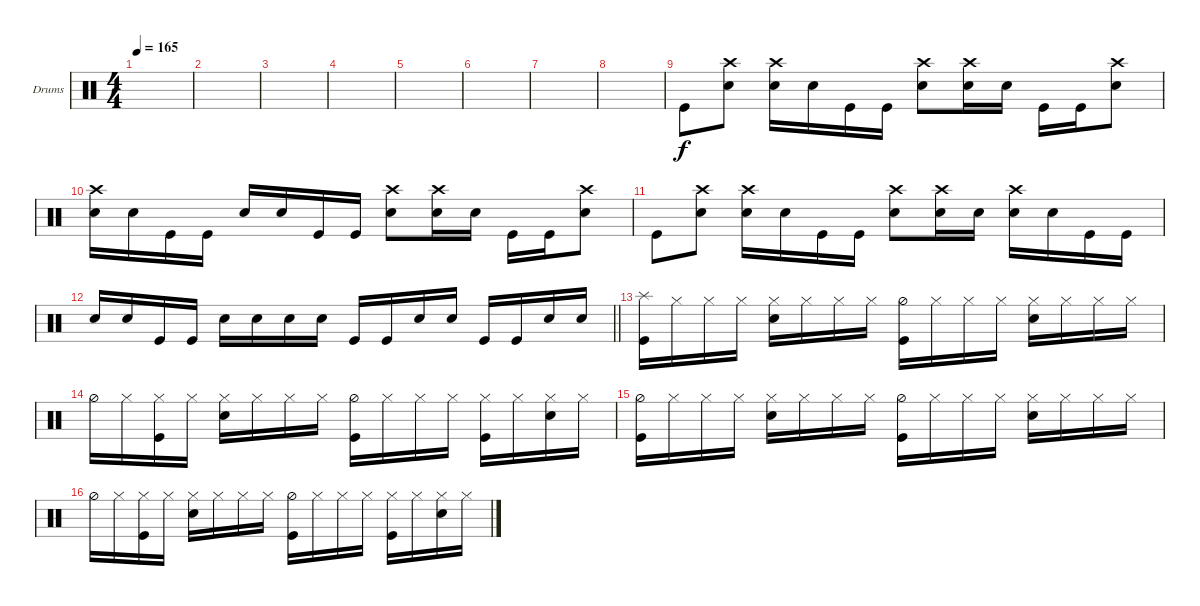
\defaultSystemsLayout 4
\bracketExtendMode groupsimilarinstruments
\firstSystemTrackNameOrientation horizontal
\otherSystemsTrackNameOrientation horizontal
\track ("Drumkit" "Drums") {instrument percussion}
\staff {score}
\articulation defaults
\ts (4 4)
\tempo 165
\clef neutral
\ks c
|
|
|
|
|
|
|
|
"Kick (hit)".8 ("Snare (hit) 2" "Crash high (hit)").8 ("Snare (hit) 2" "Crash high (hit)").16 "Snare (hit) 2".16 "Kick (hit)".16 "Kick (hit)".16 ("Snare (hit) 2" "Crash high (hit)").8 ("Snare (hit) 2" "Crash high (hit)").16 "Snare (hit) 2".16 "Kick (hit)".16 "Kick (hit)".16 ("Snare (hit) 2" "Crash high (hit)").8 |
("Snare (hit) 2" "Crash high (hit)").16 "Snare (hit) 2".16 "Kick (hit)".16 "Kick (hit)".16 "Snare (hit) 2".16 "Snare (hit) 2".16 "Kick (hit)".16 "Kick (hit)".16 ("Snare (hit) 2" "Crash high (hit)").8 ("Snare (hit) 2" "Crash high (hit)").16 "Snare (hit) 2".16 "Kick (hit)".16 "Kick (hit)".16 ("Snare (hit) 2" "Crash high (hit)").8 |
"Kick (hit)".8 ("Snare (hit) 2" "Crash high (hit)").8 ("Snare (hit) 2" "Crash high (hit)").16 "Snare (hit) 2".16 "Kick (hit)".16 "Kick (hit)".16 ("Snare (hit) 2" "Crash high (hit)").8 ("Snare (hit) 2" "Crash high (hit)").16 "Snare (hit) 2".16 ("Snare (hit) 2" "Crash high (hit)").16 "Snare (hit) 2".16 "Kick (hit)".16 "Kick (hit)".16 |
\barLineRight lightlight "Snare (hit) 2".16 "Snare (hit) 2".16 "Kick (hit)".16 "Kick (hit)".16 "Snare (hit) 2".16 "Snare (hit) 2".16 "Snare (hit) 2".16 "Snare (hit) 2".16 "Kick (hit)".16 "Kick (hit)".16 "Snare (hit) 2".16 "Snare (hit) 2".16 "Kick (hit)".16 "Kick (hit)".16 "Snare (hit) 2".16 "Snare (hit) 2".16
|
("Kick (hit)" "Splash (hit)").16 "Hi-Hat (closed)".16 "Hi-Hat (closed)".16 "Hi-Hat (closed)".16 ("Hi-Hat (closed)" "Snare (hit) 2").16 "Hi-Hat (closed)".16 "Hi-Hat (closed)".16 "Hi-Hat (closed)".16 ("Hi-Hat (half)" "Kick (hit)").16 "Hi-Hat (closed)".16 "Hi-Hat (closed)".16 "Hi-Hat (closed)".16 ("Hi-Hat (closed)" "Snare (hit) 2").16 "Hi-Hat (closed)".16 "Hi-Hat (closed)".16 "Hi-Hat (closed)".16 |
"Hi-Hat (half)".16 "Hi-Hat (closed)".16 ("Hi-Hat (closed)" "Kick (hit)").16 "Hi-Hat (closed)".16 ("Hi-Hat (closed)" "Snare (hit) 2").16 "Hi-Hat (closed)".16 "Hi-Hat (closed)".16 "Hi-Hat (closed)".16 ("Hi-Hat (half)" "Kick (hit)").16 "Hi-Hat (closed)".16 "Hi-Hat (closed)".16 "Hi-Hat (closed)".16 ("Hi-Hat (closed)" "Kick (hit)").16 "Hi-Hat (closed)".16 ("Hi-Hat (closed)" "Snare (hit) 2").16 "Hi-Hat (closed)".16 |
("Kick (hit)" "Hi-Hat (half)").16 "Hi-Hat (closed)".16 "Hi-Hat (closed)".16 "Hi-Hat (closed)".16 ("Hi-Hat (closed)" "Snare (hit) 2").16 "Hi-Hat (closed)".16 "Hi-Hat (closed)".16 "Hi-Hat (closed)".16 ("Hi-Hat (half)" "Kick (hit)").16 "Hi-Hat (closed)".16 "Hi-Hat (closed)".16 "Hi-Hat (closed)".16 ("Hi-Hat (closed)" "Snare (hit) 2").16 "Hi-Hat (closed)".16 "Hi-Hat (closed)".16 "Hi-Hat (closed)".16 |
"Hi-Hat (half)".16 "Hi-Hat (closed)".16 ("Hi-Hat (closed)" "Kick (hit)").16 "Hi-Hat (closed)".16 ("Hi-Hat (closed)" "Snare (hit) 2").16 "Hi-Hat (closed)".16 "Hi-Hat (closed)".16 "Hi-Hat (closed)".16 ("Hi-Hat (half)" "Kick (hit)").16 "Hi-Hat (closed)".16 "Hi-Hat (closed)".16 "Hi-Hat (closed)".16 ("Hi-Hat (closed)" "Kick (hit)").16 "Hi-Hat (closed)".16 ("Hi-Hat (closed)" "Snare (hit) 2").16 "Hi-Hat (closed)".16
